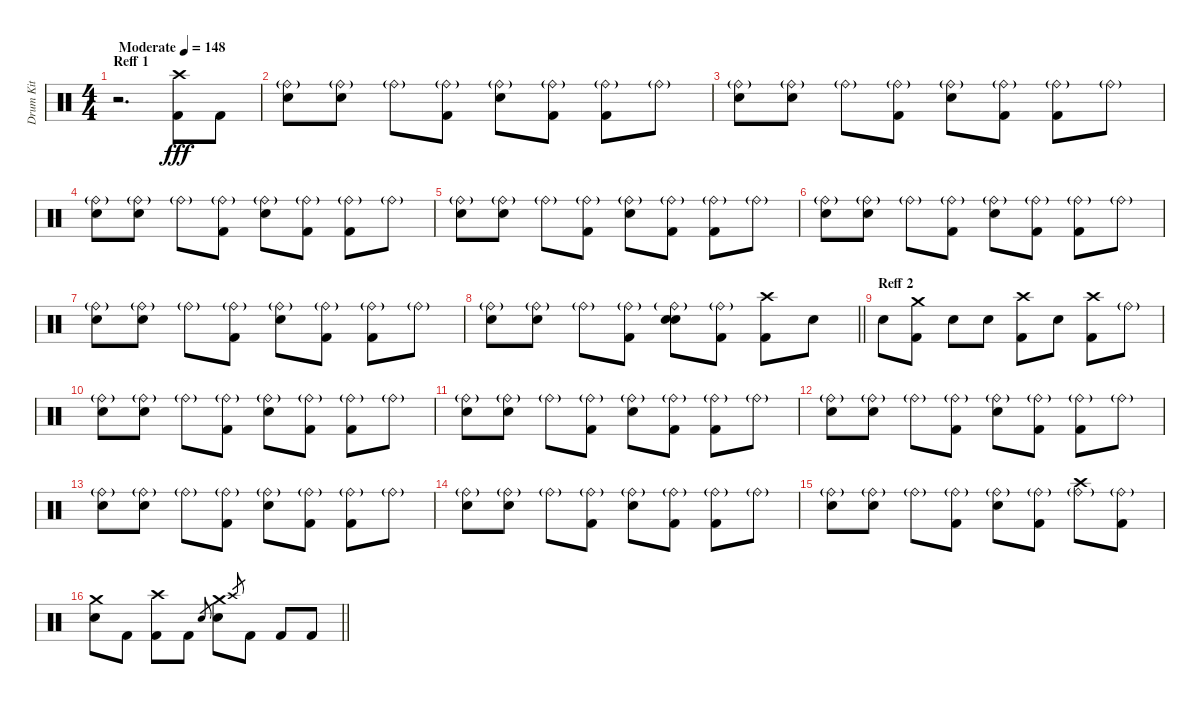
\track ("Drum Kit" "Drum Kit") {instrument percussion}
\staff {score}
\articulation defaults
\ts (4 4)
\section ("" "Reff 1")
\tempo (148 "Moderate")
\clef neutral
\ks c
r.2{d dy fff} ("Crash high (hit)" "Kick (hit) 2").8 "Kick (hit) 2".8 |
("Electric Snare (hit)" "Ride (bell)"{g}).8 ("Ride (bell)"{g} "Electric Snare (hit)").8 "Ride (bell)"{g}.8 ("Ride (bell)"{g} "Kick (hit) 2").8 ("Ride (bell)"{g} "Electric Snare (hit)").8 ("Ride (bell)"{g} "Kick (hit) 2").8 ("Ride (bell)"{g} "Kick (hit) 2").8 "Ride (bell)"{g}.8 |
("Electric Snare (hit)" "Ride (bell)"{g}).8 ("Ride (bell)"{g} "Electric Snare (hit)").8 "Ride (bell)"{g}.8 ("Ride (bell)"{g} "Kick (hit) 2").8 ("Ride (bell)"{g} "Electric Snare (hit)").8 ("Ride (bell)"{g} "Kick (hit) 2").8 ("Ride (bell)"{g} "Kick (hit) 2").8 "Ride (bell)"{g}.8 |
("Electric Snare (hit)" "Ride (bell)"{g}).8 ("Ride (bell)"{g} "Electric Snare (hit)").8 "Ride (bell)"{g}.8 ("Ride (bell)"{g} "Kick (hit) 2").8 ("Ride (bell)"{g} "Electric Snare (hit)").8 ("Ride (bell)"{g} "Kick (hit) 2").8 ("Ride (bell)"{g} "Kick (hit) 2").8 "Ride (bell)"{g}.8 |
("Electric Snare (hit)" "Ride (bell)"{g}).8 ("Ride (bell)"{g} "Electric Snare (hit)").8 "Ride (bell)"{g}.8 ("Ride (bell)"{g} "Kick (hit) 2").8 ("Ride (bell)"{g} "Electric Snare (hit)").8 ("Ride (bell)"{g} "Kick (hit) 2").8 ("Ride (bell)"{g} "Kick (hit) 2").8 "Ride (bell)"{g}.8 |
("Electric Snare (hit)" "Ride (bell)"{g}).8 ("Ride (bell)"{g} "Electric Snare (hit)").8 "Ride (bell)"{g}.8 ("Ride (bell)"{g} "Kick (hit) 2").8 ("Ride (bell)"{g} "Electric Snare (hit)").8 ("Ride (bell)"{g} "Kick (hit) 2").8 ("Ride (bell)"{g} "Kick (hit) 2").8 "Ride (bell)"{g}.8 |
("Electric Snare (hit)" "Ride (bell)"{g}).8 ("Ride (bell)"{g} "Electric Snare (hit)").8 "Ride (bell)"{g}.8 ("Ride (bell)"{g} "Kick (hit) 2").8 ("Ride (bell)"{g} "Electric Snare (hit)").8 ("Ride (bell)"{g} "Kick (hit) 2").8 ("Ride (bell)"{g} "Kick (hit) 2").8 "Ride (bell)"{g}.8 |
\barLineRight lightlight
("Electric Snare (hit)" "Ride (bell)"{g}).8 ("Ride (bell)"{g} "Electric Snare (hit)").8 "Ride (bell)"{g}.8 ("Kick (hit) 2" "Ride (bell)"{g}).8 ("Electric Snare (hit)" "Ride (bell)"{g} "Electric Snare (hit)").8 ("Ride (bell)"{g} "Kick (hit) 2").8 ("Crash high (hit)" "Kick (hit) 2").8 "Electric Snare (hit)".8 |
\section ("" "Reff 2")
"Electric Snare (hit)".8 ("Kick (hit) 2" "Crash medium (hit)").8 "Electric Snare (hit)".8 "Electric Snare (hit)".8 ("Crash high (hit)" "Kick (hit) 2").8 "Electric Snare (hit)".8 ("Crash high (hit)" "Kick (hit) 2").8 "Ride (bell)"{g}.8 |
("Electric Snare (hit)" "Ride (bell)"{g}).8 ("Ride (bell)"{g} "Electric Snare (hit)").8 "Ride (bell)"{g}.8 ("Ride (bell)"{g} "Kick (hit) 2").8 ("Ride (bell)"{g} "Electric Snare (hit)").8 ("Ride (bell)"{g} "Kick (hit) 2").8 ("Ride (bell)"{g} "Kick (hit) 2").8 "Ride (bell)"{g}.8 |
("Electric Snare (hit)" "Ride (bell)"{g}).8 ("Ride (bell)"{g} "Electric Snare (hit)").8 "Ride (bell)"{g}.8 ("Ride (bell)"{g} "Kick (hit) 2").8 ("Ride (bell)"{g} "Electric Snare (hit)").8 ("Ride (bell)"{g} "Kick (hit) 2").8 ("Ride (bell)"{g} "Kick (hit) 2").8 "Ride (bell)"{g}.8 |
("Electric Snare (hit)" "Ride (bell)"{g}).8 ("Ride (bell)"{g} "Electric Snare (hit)").8 "Ride (bell)"{g}.8 ("Ride (bell)"{g} "Kick (hit) 2").8 ("Ride (bell)"{g} "Electric Snare (hit)").8 ("Ride (bell)"{g} "Kick (hit) 2").8 ("Ride (bell)"{g} "Kick (hit) 2").8 "Ride (bell)"{g}.8 |
("Electric Snare (hit)" "Ride (bell)"{g}).8 ("Ride (bell)"{g} "Electric Snare (hit)").8 "Ride (bell)"{g}.8 ("Ride (bell)"{g} "Kick (hit) 2").8 ("Ride (bell)"{g} "Electric Snare (hit)").8 ("Ride (bell)"{g} "Kick (hit) 2").8 ("Ride (bell)"{g} "Kick (hit) 2").8 "Ride (bell)"{g}.8 |
("Electric Snare (hit)" "Ride (bell)"{g}).8 ("Ride (bell)"{g} "Electric Snare (hit)").8 "Ride (bell)"{g}.8 ("Ride (bell)"{g} "Kick (hit) 2").8 ("Ride (bell)"{g} "Electric Snare (hit)").8 ("Ride (bell)"{g} "Kick (hit) 2").8 ("Ride (bell)"{g} "Kick (hit) 2").8 "Ride (bell)"{g}.8 |
("Electric Snare (hit)" "Ride (bell)"{g}).8 ("Ride (bell)"{g} "Electric Snare (hit)").8 "Ride (bell)"{g}.8 ("Ride (bell)"{g} "Kick (hit) 2").8 ("Ride (bell)"{g} "Electric Snare (hit)").8 ("Ride (bell)"{g} "Kick (hit) 2").8 ("Ride (bell)"{g} "Crash high (hit)").8 ("Ride (bell)"{g} "Kick (hit) 2").8 |
\barLineRight lightlight
("Crash medium (hit)" "Electric Snare (hit)").8 "Kick (hit) 2".8 ("Kick (hit) 2" "Crash high (hit)").8 "Kick (hit) 2".8 "Electric Snare (hit)".8{gr} ("Crash medium (hit)" "Electric Snare (hit)").8 "Crash high (hit)".8{gr} "Kick (hit) 2".8 "Kick (hit) 2".8 "Kick (hit) 2".8
